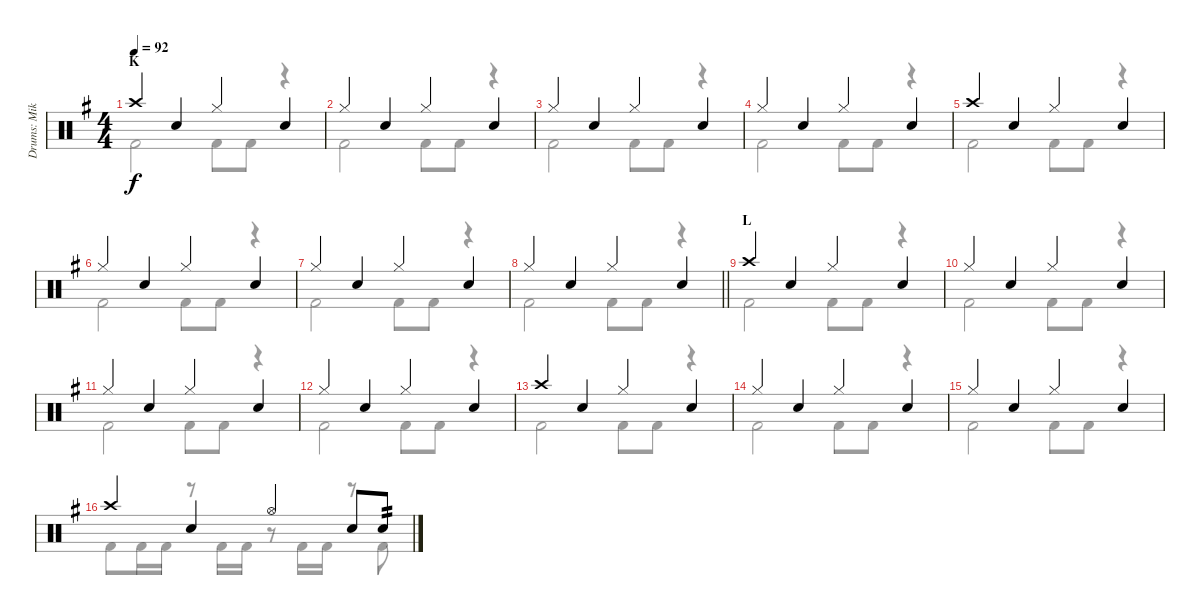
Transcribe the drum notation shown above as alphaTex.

\track ("Drums: Mike" "Drums: Mik") {instrument percussion}
\staff {score}
\articulation defaults
\voice
\ts (4 4)
\section ("" "K")
\tempo 92
\clef neutral
\ks g "Crash high (hit)".4{dy f} "Snare (hit) 2".4 "Hi-Hat (closed)".4 "Snare (hit) 2".4
|
"Hi-Hat (closed)".4 "Snare (hit) 2".4 "Hi-Hat (closed)".4 "Snare (hit) 2".4 |
"Hi-Hat (closed)".4 "Snare (hit) 2".4 "Hi-Hat (closed)".4 "Snare (hit) 2".4 |
"Hi-Hat (closed)".4 "Snare (hit) 2".4 "Hi-Hat (closed)".4 "Snare (hit) 2".4 |
"Crash high (hit)".4 "Snare (hit) 2".4 "Hi-Hat (closed)".4 "Snare (hit) 2".4 |
"Hi-Hat (closed)".4 "Snare (hit) 2".4 "Hi-Hat (closed)".4 "Snare (hit) 2".4 |
"Hi-Hat (closed)".4 "Snare (hit) 2".4 "Hi-Hat (closed)".4 "Snare (hit) 2".4 |
\barLineRight lightlight "Hi-Hat (closed)".4 "Snare (hit) 2".4 "Hi-Hat (closed)".4 "Snare (hit) 2".4
|
\section ("" "L")
"Crash high (hit)".4 "Snare (hit) 2".4 "Hi-Hat (closed)".4 "Snare (hit) 2".4 |
"Hi-Hat (closed)".4 "Snare (hit) 2".4 "Hi-Hat (closed)".4 "Snare (hit) 2".4 |
"Hi-Hat (closed)".4 "Snare (hit) 2".4 "Hi-Hat (closed)".4 "Snare (hit) 2".4 |
"Hi-Hat (closed)".4 "Snare (hit) 2".4 "Hi-Hat (closed)".4 "Snare (hit) 2".4 |
"Crash high (hit)".4 "Snare (hit) 2".4 "Hi-Hat (closed)".4 "Snare (hit) 2".4 |
"Hi-Hat (closed)".4 "Snare (hit) 2".4 "Hi-Hat (closed)".4 "Snare (hit) 2".4 |
"Hi-Hat (closed)".4 "Snare (hit) 2".4 "Hi-Hat (closed)".4 "Snare (hit) 2".4 |
"Crash high (hit)".4 "Snare (hit) 2".4 "Hi-Hat (open)".4{beam merge} "Snare (hit) 2".8 "Electric Snare (hit)".8{tp 2}
\voice
\clef neutral
\ottava regular
\simile none
\ks g "Kick (hit) 2".2{dy f} "Kick (hit) 2".8 "Kick (hit) 2".8
r.4 |
"Kick (hit) 2".2 "Kick (hit) 2".8 "Kick (hit) 2".8 r.4 |
"Kick (hit) 2".2 "Kick (hit) 2".8 "Kick (hit) 2".8 r.4 |
"Kick (hit) 2".2 "Kick (hit) 2".8 "Kick (hit) 2".8 r.4 |
"Kick (hit) 2".2 "Kick (hit) 2".8 "Kick (hit) 2".8 r.4 |
"Kick (hit) 2".2 "Kick (hit) 2".8 "Kick (hit) 2".8 r.4 |
"Kick (hit) 2".2 "Kick (hit) 2".8 "Kick (hit) 2".8 r.4 |
\barLineRight lightlight "Kick (hit) 2".2 "Kick (hit) 2".8 "Kick (hit) 2".8
r.4 |
"Kick (hit) 2".2 "Kick (hit) 2".8 "Kick (hit) 2".8 r.4 |
"Kick (hit) 2".2 "Kick (hit) 2".8 "Kick (hit) 2".8 r.4 |
"Kick (hit) 2".2 "Kick (hit) 2".8 "Kick (hit) 2".8 r.4 |
"Kick (hit) 2".2 "Kick (hit) 2".8 "Kick (hit) 2".8 r.4 |
"Kick (hit) 2".2 "Kick (hit) 2".8 "Kick (hit) 2".8 r.4 |
"Kick (hit) 2".2 "Kick (hit) 2".8 "Kick (hit) 2".8 r.4 |
"Kick (hit) 2".2 "Kick (hit) 2".8 "Kick (hit) 2".8 r.4 |
"Kick (hit) 2".8 "Kick (hit) 2".16 "Kick (hit) 2".16 r.8 "Kick (hit) 2".16 "Kick (hit) 2".16 r.8 "Kick (hit) 2".16 "Kick (hit) 2".16 r.8 "Kick (hit) 2".8
